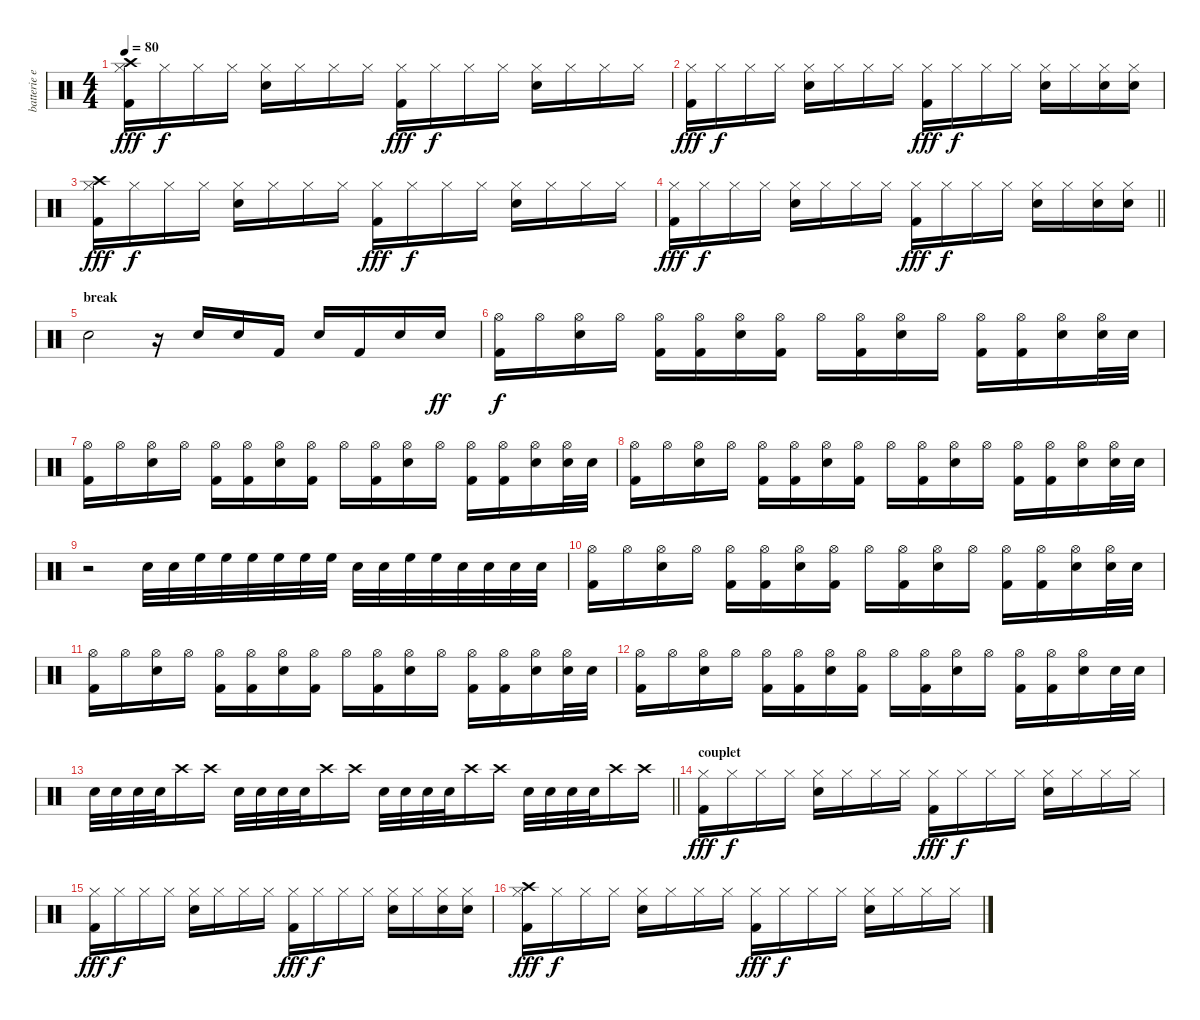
\track ("batterie eti" "batterie e") {instrument percussion}
\staff {score}
\articulation defaults
\ts (4 4)
\tempo 80
\clef neutral
\ks c
("Crash high (hit)" "Hi-Hat (closed)" "Kick (hit) 2").16{dy fff} "Hi-Hat (closed)".16{dy f} "Hi-Hat (closed)".16 "Hi-Hat (closed)".16 ("Hi-Hat (closed)" "Electric Snare (hit)").16 "Hi-Hat (closed)".16 "Hi-Hat (closed)".16 "Hi-Hat (closed)".16 ("Hi-Hat (closed)" "Kick (hit) 2").16{dy fff} "Hi-Hat (closed)".16{dy f} "Hi-Hat (closed)".16 "Hi-Hat (closed)".16 ("Hi-Hat (closed)" "Electric Snare (hit)").16 "Hi-Hat (closed)".16 "Hi-Hat (closed)".16 "Hi-Hat (closed)".16 |
("Hi-Hat (closed)" "Kick (hit) 2").16{dy fff} "Hi-Hat (closed)".16{dy f} "Hi-Hat (closed)".16 "Hi-Hat (closed)".16 ("Hi-Hat (closed)" "Electric Snare (hit)").16 "Hi-Hat (closed)".16 "Hi-Hat (closed)".16 "Hi-Hat (closed)".16 ("Hi-Hat (closed)" "Kick (hit) 2").16{dy fff} "Hi-Hat (closed)".16{dy f} "Hi-Hat (closed)".16 "Hi-Hat (closed)".16 ("Hi-Hat (closed)" "Electric Snare (hit)").16 "Hi-Hat (closed)".16 ("Hi-Hat (closed)" "Electric Snare (hit)").16 ("Hi-Hat (closed)" "Electric Snare (hit)").16 |
("Crash high (hit)" "Hi-Hat (closed)" "Kick (hit) 2").16{dy fff} "Hi-Hat (closed)".16{dy f} "Hi-Hat (closed)".16 "Hi-Hat (closed)".16 ("Hi-Hat (closed)" "Electric Snare (hit)").16 "Hi-Hat (closed)".16 "Hi-Hat (closed)".16 "Hi-Hat (closed)".16 ("Hi-Hat (closed)" "Kick (hit) 2").16{dy fff} "Hi-Hat (closed)".16{dy f} "Hi-Hat (closed)".16 "Hi-Hat (closed)".16 ("Hi-Hat (closed)" "Electric Snare (hit)").16 "Hi-Hat (closed)".16 "Hi-Hat (closed)".16 "Hi-Hat (closed)".16 |
\barLineRight lightlight
("Hi-Hat (closed)" "Kick (hit) 2").16{dy fff} "Hi-Hat (closed)".16{dy f} "Hi-Hat (closed)".16 "Hi-Hat (closed)".16 ("Hi-Hat (closed)" "Electric Snare (hit)").16 "Hi-Hat (closed)".16 "Hi-Hat (closed)".16 "Hi-Hat (closed)".16 ("Hi-Hat (closed)" "Kick (hit) 2").16{dy fff} "Hi-Hat (closed)".16{dy f} "Hi-Hat (closed)".16 "Hi-Hat (closed)".16 ("Hi-Hat (closed)" "Electric Snare (hit)").16 "Hi-Hat (closed)".16 ("Hi-Hat (closed)" "Electric Snare (hit)").16 ("Hi-Hat (closed)" "Electric Snare (hit)").16 |
\section ("" "break")
"Electric Snare (hit)".2 r.16 "Electric Snare (hit)".16 "Electric Snare (hit)".16 "Kick (hit) 2".16 "Electric Snare (hit)".16 "Kick (hit) 2".16 "Electric Snare (hit)".16 "Electric Snare (hit)".16{dy ff} |
("Hi-Hat (open)" "Kick (hit) 2").16{dy f} "Hi-Hat (open)".16 ("Hi-Hat (open)" "Electric Snare (hit)").16 "Hi-Hat (open)".16 ("Hi-Hat (open)" "Kick (hit) 2").16 ("Hi-Hat (open)" "Kick (hit) 2").16 ("Hi-Hat (open)" "Electric Snare (hit)").16 ("Hi-Hat (open)" "Kick (hit) 2").16 "Hi-Hat (open)".16 ("Hi-Hat (open)" "Kick (hit) 2").16 ("Hi-Hat (open)" "Electric Snare (hit)").16 "Hi-Hat (open)".16 ("Hi-Hat (open)" "Kick (hit) 2").16 ("Hi-Hat (open)" "Kick (hit) 2").16 ("Hi-Hat (open)" "Electric Snare (hit)").16 ("Hi-Hat (open)" "Electric Snare (hit)").32 "Electric Snare (hit)".32 |
("Hi-Hat (open)" "Kick (hit) 2").16 "Hi-Hat (open)".16 ("Hi-Hat (open)" "Electric Snare (hit)").16 "Hi-Hat (open)".16 ("Hi-Hat (open)" "Kick (hit) 2").16 ("Hi-Hat (open)" "Kick (hit) 2").16 ("Hi-Hat (open)" "Electric Snare (hit)").16 ("Hi-Hat (open)" "Kick (hit) 2").16 "Hi-Hat (open)".16 ("Hi-Hat (open)" "Kick (hit) 2").16 ("Hi-Hat (open)" "Electric Snare (hit)").16 "Hi-Hat (open)".16 ("Hi-Hat (open)" "Kick (hit) 2").16 ("Hi-Hat (open)" "Kick (hit) 2").16 ("Hi-Hat (open)" "Electric Snare (hit)").16 ("Hi-Hat (open)" "Electric Snare (hit)").32 "Electric Snare (hit)".32 |
("Hi-Hat (open)" "Kick (hit) 2").16 "Hi-Hat (open)".16 ("Hi-Hat (open)" "Electric Snare (hit)").16 "Hi-Hat (open)".16 ("Hi-Hat (open)" "Kick (hit) 2").16 ("Hi-Hat (open)" "Kick (hit) 2").16 ("Hi-Hat (open)" "Electric Snare (hit)").16 ("Hi-Hat (open)" "Kick (hit) 2").16 "Hi-Hat (open)".16 ("Hi-Hat (open)" "Kick (hit) 2").16 ("Hi-Hat (open)" "Electric Snare (hit)").16 "Hi-Hat (open)".16 ("Hi-Hat (open)" "Kick (hit) 2").16 ("Hi-Hat (open)" "Kick (hit) 2").16 ("Hi-Hat (open)" "Electric Snare (hit)").16 ("Hi-Hat (open)" "Electric Snare (hit)").32 "Electric Snare (hit)".32 |
r.2 "Electric Snare (hit)".32 "Electric Snare (hit)".32 "High Floor Tom (hit)".32 "High Floor Tom (hit)".32 "High Floor Tom (hit)".32 "High Floor Tom (hit)".32 "High Floor Tom (hit)".32 "High Floor Tom (hit)".32 "Electric Snare (hit)".32 "Electric Snare (hit)".32 "High Floor Tom (hit)".32 "High Floor Tom (hit)".32 "Electric Snare (hit)".32 "Electric Snare (hit)".32 "Electric Snare (hit)".32 "Electric Snare (hit)".32 |
("Hi-Hat (open)" "Kick (hit) 2").16 "Hi-Hat (open)".16 ("Hi-Hat (open)" "Electric Snare (hit)").16 "Hi-Hat (open)".16 ("Hi-Hat (open)" "Kick (hit) 2").16 ("Hi-Hat (open)" "Kick (hit) 2").16 ("Hi-Hat (open)" "Electric Snare (hit)").16 ("Hi-Hat (open)" "Kick (hit) 2").16 "Hi-Hat (open)".16 ("Hi-Hat (open)" "Kick (hit) 2").16 ("Hi-Hat (open)" "Electric Snare (hit)").16 "Hi-Hat (open)".16 ("Hi-Hat (open)" "Kick (hit) 2").16 ("Hi-Hat (open)" "Kick (hit) 2").16 ("Hi-Hat (open)" "Electric Snare (hit)").16 ("Hi-Hat (open)" "Electric Snare (hit)").32 "Electric Snare (hit)".32 |
("Hi-Hat (open)" "Kick (hit) 2").16 "Hi-Hat (open)".16 ("Hi-Hat (open)" "Electric Snare (hit)").16 "Hi-Hat (open)".16 ("Hi-Hat (open)" "Kick (hit) 2").16 ("Hi-Hat (open)" "Kick (hit) 2").16 ("Hi-Hat (open)" "Electric Snare (hit)").16 ("Hi-Hat (open)" "Kick (hit) 2").16 "Hi-Hat (open)".16 ("Hi-Hat (open)" "Kick (hit) 2").16 ("Hi-Hat (open)" "Electric Snare (hit)").16 "Hi-Hat (open)".16 ("Hi-Hat (open)" "Kick (hit) 2").16 ("Hi-Hat (open)" "Kick (hit) 2").16 ("Hi-Hat (open)" "Electric Snare (hit)").16 ("Hi-Hat (open)" "Electric Snare (hit)").32 "Electric Snare (hit)".32 |
("Hi-Hat (open)" "Kick (hit) 2").16 "Hi-Hat (open)".16 ("Hi-Hat (open)" "Electric Snare (hit)").16 "Hi-Hat (open)".16 ("Hi-Hat (open)" "Kick (hit) 2").16 ("Hi-Hat (open)" "Kick (hit) 2").16 ("Hi-Hat (open)" "Electric Snare (hit)").16 ("Hi-Hat (open)" "Kick (hit) 2").16 "Hi-Hat (open)".16 ("Hi-Hat (open)" "Kick (hit) 2").16 ("Hi-Hat (open)" "Electric Snare (hit)").16 "Hi-Hat (open)".16 ("Hi-Hat (open)" "Kick (hit) 2").16 ("Hi-Hat (open)" "Kick (hit) 2").16 ("Hi-Hat (open)" "Electric Snare (hit)").16 "Electric Snare (hit)".32 "Electric Snare (hit)".32 |
\barLineRight lightlight "Electric Snare (hit)".32 "Electric Snare (hit)".32 "Electric Snare (hit)".32 "Electric Snare (hit)".32 "Crash high (hit)".16 "Crash high (hit)".16 "Electric Snare (hit)".32 "Electric Snare (hit)".32 "Electric Snare (hit)".32 "Electric Snare (hit)".32 "Crash high (hit)".16 "Crash high (hit)".16 "Electric Snare (hit)".32 "Electric Snare (hit)".32 "Electric Snare (hit)".32 "Electric Snare (hit)".32 "Crash high (hit)".16 "Crash high (hit)".16 "Electric Snare (hit)".32 "Electric Snare (hit)".32 "Electric Snare (hit)".32 "Electric Snare (hit)".32 "Crash high (hit)".16 "Crash high (hit)".16
|
\section ("" "couplet")
("Hi-Hat (closed)" "Kick (hit) 2").16{dy fff} "Hi-Hat (closed)".16{dy f} "Hi-Hat (closed)".16 "Hi-Hat (closed)".16 ("Hi-Hat (closed)" "Electric Snare (hit)").16 "Hi-Hat (closed)".16 "Hi-Hat (closed)".16 "Hi-Hat (closed)".16 ("Hi-Hat (closed)" "Kick (hit) 2").16{dy fff} "Hi-Hat (closed)".16{dy f} "Hi-Hat (closed)".16 "Hi-Hat (closed)".16 ("Hi-Hat (closed)" "Electric Snare (hit)").16 "Hi-Hat (closed)".16 "Hi-Hat (closed)".16 "Hi-Hat (closed)".16 |
("Hi-Hat (closed)" "Kick (hit) 2").16{dy fff} "Hi-Hat (closed)".16{dy f} "Hi-Hat (closed)".16 "Hi-Hat (closed)".16 ("Hi-Hat (closed)" "Electric Snare (hit)").16 "Hi-Hat (closed)".16 "Hi-Hat (closed)".16 "Hi-Hat (closed)".16 ("Hi-Hat (closed)" "Kick (hit) 2").16{dy fff} "Hi-Hat (closed)".16{dy f} "Hi-Hat (closed)".16 "Hi-Hat (closed)".16 ("Hi-Hat (closed)" "Electric Snare (hit)").16 "Hi-Hat (closed)".16 ("Hi-Hat (closed)" "Electric Snare (hit)").16 ("Hi-Hat (closed)" "Electric Snare (hit)").16 |
("Crash high (hit)" "Hi-Hat (closed)" "Kick (hit) 2").16{dy fff} "Hi-Hat (closed)".16{dy f} "Hi-Hat (closed)".16 "Hi-Hat (closed)".16 ("Hi-Hat (closed)" "Electric Snare (hit)").16 "Hi-Hat (closed)".16 "Hi-Hat (closed)".16 "Hi-Hat (closed)".16 ("Hi-Hat (closed)" "Kick (hit) 2").16{dy fff} "Hi-Hat (closed)".16{dy f} "Hi-Hat (closed)".16 "Hi-Hat (closed)".16 ("Hi-Hat (closed)" "Electric Snare (hit)").16 "Hi-Hat (closed)".16 "Hi-Hat (closed)".16 "Hi-Hat (closed)".16
